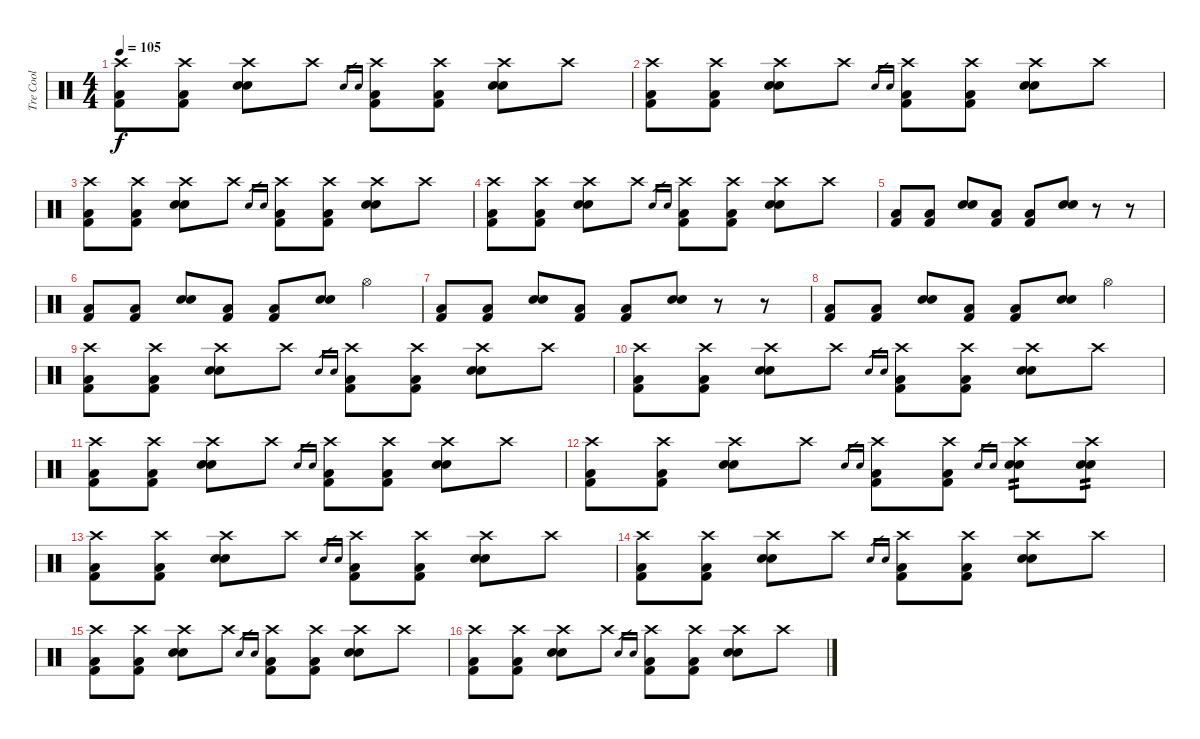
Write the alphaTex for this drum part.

\track ("Tre Cool" "Tre Cool") {instrument percussion}
\staff {score}
\articulation defaults
\ts (4 4)
\tempo 105
\clef neutral
\ks c
("Crash high (hit)" "Kick (hit) 2" "Low Floor Tom (hit)").8{dy f} ("Crash high (hit)" "Kick (hit) 2" "Low Floor Tom (hit)").8 ("Crash high (hit)" "Electric Snare (hit)" "Electric Snare (hit)").8 "Crash high (hit)".8 "Electric Snare (hit)".16{gr} "Electric Snare (hit)".16{gr} ("Crash high (hit)" "Kick (hit) 2" "Low Floor Tom (hit)").8 ("Crash high (hit)" "Kick (hit) 2" "Low Floor Tom (hit)").8 ("Crash high (hit)" "Electric Snare (hit)" "Electric Snare (hit)").8 "Crash high (hit)".8 |
("Crash high (hit)" "Kick (hit) 2" "Low Floor Tom (hit)").8 ("Crash high (hit)" "Kick (hit) 2" "Low Floor Tom (hit)").8 ("Crash high (hit)" "Electric Snare (hit)" "Electric Snare (hit)").8 "Crash high (hit)".8 "Electric Snare (hit)".16{gr} "Electric Snare (hit)".16{gr} ("Crash high (hit)" "Kick (hit) 2" "Low Floor Tom (hit)").8 ("Crash high (hit)" "Kick (hit) 2" "Low Floor Tom (hit)").8 ("Crash high (hit)" "Electric Snare (hit)" "Electric Snare (hit)").8 "Crash high (hit)".8 |
("Crash high (hit)" "Kick (hit) 2" "Low Floor Tom (hit)").8 ("Crash high (hit)" "Kick (hit) 2" "Low Floor Tom (hit)").8 ("Crash high (hit)" "Electric Snare (hit)" "Electric Snare (hit)").8 "Crash high (hit)".8 "Electric Snare (hit)".16{gr} "Electric Snare (hit)".16{gr} ("Crash high (hit)" "Kick (hit) 2" "Low Floor Tom (hit)").8 ("Crash high (hit)" "Kick (hit) 2" "Low Floor Tom (hit)").8 ("Crash high (hit)" "Electric Snare (hit)" "Electric Snare (hit)").8 "Crash high (hit)".8 |
("Crash high (hit)" "Kick (hit) 2" "Low Floor Tom (hit)").8 ("Crash high (hit)" "Kick (hit) 2" "Low Floor Tom (hit)").8 ("Crash high (hit)" "Electric Snare (hit)" "Electric Snare (hit)").8 "Crash high (hit)".8 "Electric Snare (hit)".16{gr} "Electric Snare (hit)".16{gr} ("Crash high (hit)" "Kick (hit) 2" "Low Floor Tom (hit)").8 ("Crash high (hit)" "Kick (hit) 2" "Low Floor Tom (hit)").8 ("Crash high (hit)" "Electric Snare (hit)" "Electric Snare (hit)").8 "Crash high (hit)".8 |
("Kick (hit) 2" "Low Floor Tom (hit)").8 ("Kick (hit) 2" "Low Floor Tom (hit)").8 ("Electric Snare (hit)" "Electric Snare (hit)").8 ("Kick (hit) 2" "Low Floor Tom (hit)").8 ("Kick (hit) 2" "Low Floor Tom (hit)").8 ("Electric Snare (hit)" "Electric Snare (hit)").8 r.8 r.8 |
("Kick (hit) 2" "Low Floor Tom (hit)").8 ("Kick (hit) 2" "Low Floor Tom (hit)").8 ("Electric Snare (hit)" "Electric Snare (hit)").8 ("Kick (hit) 2" "Low Floor Tom (hit)").8 ("Kick (hit) 2" "Low Floor Tom (hit)").8 ("Electric Snare (hit)" "Electric Snare (hit)").8 "Hi-Hat (open)".4 |
("Kick (hit) 2" "Low Floor Tom (hit)").8 ("Kick (hit) 2" "Low Floor Tom (hit)").8 ("Electric Snare (hit)" "Electric Snare (hit)").8 ("Kick (hit) 2" "Low Floor Tom (hit)").8 ("Kick (hit) 2" "Low Floor Tom (hit)").8 ("Electric Snare (hit)" "Electric Snare (hit)").8 r.8 r.8 |
("Kick (hit) 2" "Low Floor Tom (hit)").8 ("Kick (hit) 2" "Low Floor Tom (hit)").8 ("Electric Snare (hit)" "Electric Snare (hit)").8 ("Kick (hit) 2" "Low Floor Tom (hit)").8 ("Kick (hit) 2" "Low Floor Tom (hit)").8 ("Electric Snare (hit)" "Electric Snare (hit)").8 "Hi-Hat (open)".4 |
("Crash high (hit)" "Kick (hit) 2" "Low Floor Tom (hit)").8 ("Crash high (hit)" "Kick (hit) 2" "Low Floor Tom (hit)").8 ("Crash high (hit)" "Electric Snare (hit)" "Electric Snare (hit)").8 "Crash high (hit)".8 "Electric Snare (hit)".16{gr} "Electric Snare (hit)".16{gr} ("Crash high (hit)" "Kick (hit) 2" "Low Floor Tom (hit)").8 ("Crash high (hit)" "Kick (hit) 2" "Low Floor Tom (hit)").8 ("Crash high (hit)" "Electric Snare (hit)" "Electric Snare (hit)").8 "Crash high (hit)".8 |
("Crash high (hit)" "Kick (hit) 2" "Low Floor Tom (hit)").8 ("Crash high (hit)" "Kick (hit) 2" "Low Floor Tom (hit)").8 ("Crash high (hit)" "Electric Snare (hit)" "Electric Snare (hit)").8 "Crash high (hit)".8 "Electric Snare (hit)".16{gr} "Electric Snare (hit)".16{gr} ("Crash high (hit)" "Kick (hit) 2" "Low Floor Tom (hit)").8 ("Crash high (hit)" "Kick (hit) 2" "Low Floor Tom (hit)").8 ("Crash high (hit)" "Electric Snare (hit)" "Electric Snare (hit)").8 "Crash high (hit)".8 |
("Crash high (hit)" "Kick (hit) 2" "Low Floor Tom (hit)").8 ("Crash high (hit)" "Kick (hit) 2" "Low Floor Tom (hit)").8 ("Crash high (hit)" "Electric Snare (hit)" "Electric Snare (hit)").8 "Crash high (hit)".8 "Electric Snare (hit)".16{gr} "Electric Snare (hit)".16{gr} ("Crash high (hit)" "Kick (hit) 2" "Low Floor Tom (hit)").8 ("Crash high (hit)" "Kick (hit) 2" "Low Floor Tom (hit)").8 ("Crash high (hit)" "Electric Snare (hit)" "Electric Snare (hit)").8 "Crash high (hit)".8 |
("Crash high (hit)" "Kick (hit) 2" "Low Floor Tom (hit)").8 ("Crash high (hit)" "Kick (hit) 2" "Low Floor Tom (hit)").8 ("Crash high (hit)" "Electric Snare (hit)" "Electric Snare (hit)").8 "Crash high (hit)".8 "Electric Snare (hit)".16{gr} "Electric Snare (hit)".16{gr} ("Crash high (hit)" "Kick (hit) 2" "Low Floor Tom (hit)").8 ("Crash high (hit)" "Kick (hit) 2" "Low Floor Tom (hit)").8 "Electric Snare (hit)".16{gr} "Electric Snare (hit)".16{gr} ("Crash high (hit)" "Electric Snare (hit)" "Electric Snare (hit)").8{tp 2} ("Crash high (hit)" "Electric Snare (hit)" "Electric Snare (hit)").8{tp 2} |
("Crash high (hit)" "Kick (hit) 2" "Low Floor Tom (hit)").8 ("Crash high (hit)" "Kick (hit) 2" "Low Floor Tom (hit)").8 ("Crash high (hit)" "Electric Snare (hit)" "Electric Snare (hit)").8 "Crash high (hit)".8 "Electric Snare (hit)".16{gr} "Electric Snare (hit)".16{gr} ("Crash high (hit)" "Kick (hit) 2" "Low Floor Tom (hit)").8 ("Crash high (hit)" "Kick (hit) 2" "Low Floor Tom (hit)").8 ("Crash high (hit)" "Electric Snare (hit)" "Electric Snare (hit)").8 "Crash high (hit)".8 |
("Crash high (hit)" "Kick (hit) 2" "Low Floor Tom (hit)").8 ("Crash high (hit)" "Kick (hit) 2" "Low Floor Tom (hit)").8 ("Crash high (hit)" "Electric Snare (hit)" "Electric Snare (hit)").8 "Crash high (hit)".8 "Electric Snare (hit)".16{gr} "Electric Snare (hit)".16{gr} ("Crash high (hit)" "Kick (hit) 2" "Low Floor Tom (hit)").8 ("Crash high (hit)" "Kick (hit) 2" "Low Floor Tom (hit)").8 ("Crash high (hit)" "Electric Snare (hit)" "Electric Snare (hit)").8 "Crash high (hit)".8 |
("Crash high (hit)" "Kick (hit) 2" "Low Floor Tom (hit)").8 ("Crash high (hit)" "Kick (hit) 2" "Low Floor Tom (hit)").8 ("Crash high (hit)" "Electric Snare (hit)" "Electric Snare (hit)").8 "Crash high (hit)".8 "Electric Snare (hit)".16{gr} "Electric Snare (hit)".16{gr} ("Crash high (hit)" "Kick (hit) 2" "Low Floor Tom (hit)").8 ("Crash high (hit)" "Kick (hit) 2" "Low Floor Tom (hit)").8 ("Crash high (hit)" "Electric Snare (hit)" "Electric Snare (hit)").8 "Crash high (hit)".8 |
("Crash high (hit)" "Kick (hit) 2" "Low Floor Tom (hit)").8 ("Crash high (hit)" "Kick (hit) 2" "Low Floor Tom (hit)").8 ("Crash high (hit)" "Electric Snare (hit)" "Electric Snare (hit)").8 "Crash high (hit)".8 "Electric Snare (hit)".16{gr} "Electric Snare (hit)".16{gr} ("Crash high (hit)" "Kick (hit) 2" "Low Floor Tom (hit)").8 ("Crash high (hit)" "Kick (hit) 2" "Low Floor Tom (hit)").8 ("Crash high (hit)" "Electric Snare (hit)" "Electric Snare (hit)").8 "Crash high (hit)".8
